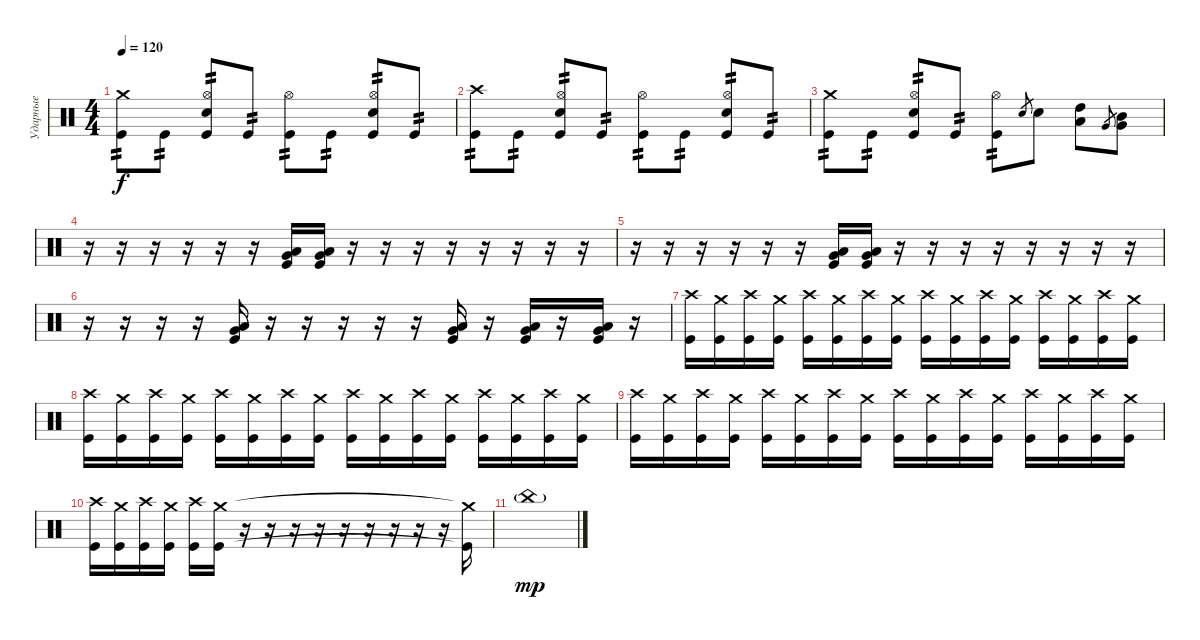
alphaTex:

\track ("Ударные" "Ударные") {instrument percussion}
\staff {score}
\articulation defaults
\ts (4 4)
\tempo 120
\clef neutral
\ks c
("Crash medium (hit)" "Kick (hit)").8{tp 2 dy f} "Kick (hit)".8{tp 2} ("Hi-Hat (open)" "Snare (hit) 2" "Kick (hit)").8{tp 2} "Kick (hit)".8{tp 2} ("Hi-Hat (open)" "Kick (hit)").8{tp 2} "Kick (hit)".8{tp 2} ("Hi-Hat (open)" "Snare (hit) 2" "Kick (hit)").8{tp 2} "Kick (hit)".8{tp 2} |
("Crash high (hit)" "Kick (hit)").8{tp 2} "Kick (hit)".8{tp 2} ("Hi-Hat (open)" "Snare (hit) 2" "Kick (hit)").8{tp 2} "Kick (hit)".8{tp 2} ("Hi-Hat (open)" "Kick (hit)").8{tp 2} "Kick (hit)".8{tp 2} ("Hi-Hat (open)" "Snare (hit) 2" "Kick (hit)").8{tp 2} "Kick (hit)".8{tp 2} |
("Crash medium (hit)" "Kick (hit)").8{tp 2} "Kick (hit)".8{tp 2} ("Hi-Hat (open)" "Snare (hit) 2" "Kick (hit)").8{tp 2} "Kick (hit)".8{tp 2} ("Hi-Hat (open)" "Kick (hit)").8{tp 2} "Snare (hit) 2".8{gr} "Snare (hit) 2".8 ("High Tom (hit)" "Low Tom (hit)").8 "Very Low Tom (hit)".8{gr} ("Mid Tom (hit)" "Very Low Tom (hit)").8 |
r.16 r.16 r.16 r.16 r.16 r.16 ("Low Floor Tom (hit)" "Very Low Tom (hit)" "Kick (hit)").16 ("Low Floor Tom (hit)" "Very Low Tom (hit)" "Kick (hit)").16 r.16 r.16 r.16 r.16 r.16 r.16 r.16 r.16 |
r.16 r.16 r.16 r.16 r.16 r.16 ("Low Floor Tom (hit)" "Very Low Tom (hit)" "Kick (hit)").16 ("Low Floor Tom (hit)" "Very Low Tom (hit)" "Kick (hit)").16 r.16 r.16 r.16 r.16 r.16 r.16 r.16 r.16 |
r.16 r.16 r.16 r.16 ("Low Floor Tom (hit)" "Very Low Tom (hit)" "Kick (hit)").16 r.16 r.16 r.16 r.16 r.16 ("Low Floor Tom (hit)" "Very Low Tom (hit)" "Kick (hit)").16 r.16 ("Low Floor Tom (hit)" "Very Low Tom (hit)" "Kick (hit)").16 r.16 ("Low Floor Tom (hit)" "Very Low Tom (hit)" "Kick (hit)").16 r.16 |
("Crash high (hit)" "Kick (hit)").16 ("Crash medium (hit)" "Kick (hit)").16 ("Crash high (hit)" "Kick (hit)").16 ("Crash medium (hit)" "Kick (hit)").16 ("Crash high (hit)" "Kick (hit)").16 ("Crash medium (hit)" "Kick (hit)").16 ("Crash high (hit)" "Kick (hit)").16 ("Crash medium (hit)" "Kick (hit)").16 ("Crash high (hit)" "Kick (hit)").16 ("Crash medium (hit)" "Kick (hit)").16 ("Crash high (hit)" "Kick (hit)").16 ("Crash medium (hit)" "Kick (hit)").16 ("Crash high (hit)" "Kick (hit)").16 ("Crash medium (hit)" "Kick (hit)").16 ("Crash high (hit)" "Kick (hit)").16 ("Crash medium (hit)" "Kick (hit)").16 |
("Crash high (hit)" "Kick (hit)").16 ("Crash medium (hit)" "Kick (hit)").16 ("Crash high (hit)" "Kick (hit)").16 ("Crash medium (hit)" "Kick (hit)").16 ("Crash high (hit)" "Kick (hit)").16 ("Crash medium (hit)" "Kick (hit)").16 ("Crash high (hit)" "Kick (hit)").16 ("Crash medium (hit)" "Kick (hit)").16 ("Crash high (hit)" "Kick (hit)").16 ("Crash medium (hit)" "Kick (hit)").16 ("Crash high (hit)" "Kick (hit)").16 ("Crash medium (hit)" "Kick (hit)").16 ("Crash high (hit)" "Kick (hit)").16 ("Crash medium (hit)" "Kick (hit)").16 ("Crash high (hit)" "Kick (hit)").16 ("Crash medium (hit)" "Kick (hit)").16 |
("Crash high (hit)" "Kick (hit)").16{volume 16} ("Crash medium (hit)" "Kick (hit)").16{volume 15} ("Crash high (hit)" "Kick (hit)").16{volume 14} ("Crash medium (hit)" "Kick (hit)").16{volume 13} ("Crash high (hit)" "Kick (hit)").16{volume 12} ("Crash medium (hit)" "Kick (hit)").16{volume 11} ("Crash high (hit)" "Kick (hit)").16{volume 10} ("Crash medium (hit)" "Kick (hit)").16{volume 9} ("Crash high (hit)" "Kick (hit)").16{volume 9} ("Crash medium (hit)" "Kick (hit)").16{volume 8} ("Crash high (hit)" "Kick (hit)").16{volume 7} ("Crash medium (hit)" "Kick (hit)").16{volume 6} ("Crash high (hit)" "Kick (hit)").16{volume 6} ("Crash medium (hit)" "Kick (hit)").16{volume 5} ("Crash high (hit)" "Kick (hit)").16{volume 5} ("Crash medium (hit)" "Kick (hit)").16{volume 4} |
("Crash high (hit)" "Kick (hit)").16{volume 4} ("Crash medium (hit)" "Kick (hit)").16{volume 3} ("Crash high (hit)" "Kick (hit)").16{volume 3} ("Crash medium (hit)" "Kick (hit)").16{volume 2} ("Crash high (hit)" "Kick (hit)").16{volume 1} ("Crash medium (hit)" "Kick (hit)").16 r.16 r.16 r.16 r.16 r.16 r.16 r.16 r.16 r.16 ("Crash medium (hit)"{t} "Kick (hit)"{t}).16 |
"China (hit)"{g}.1{dy mp}
